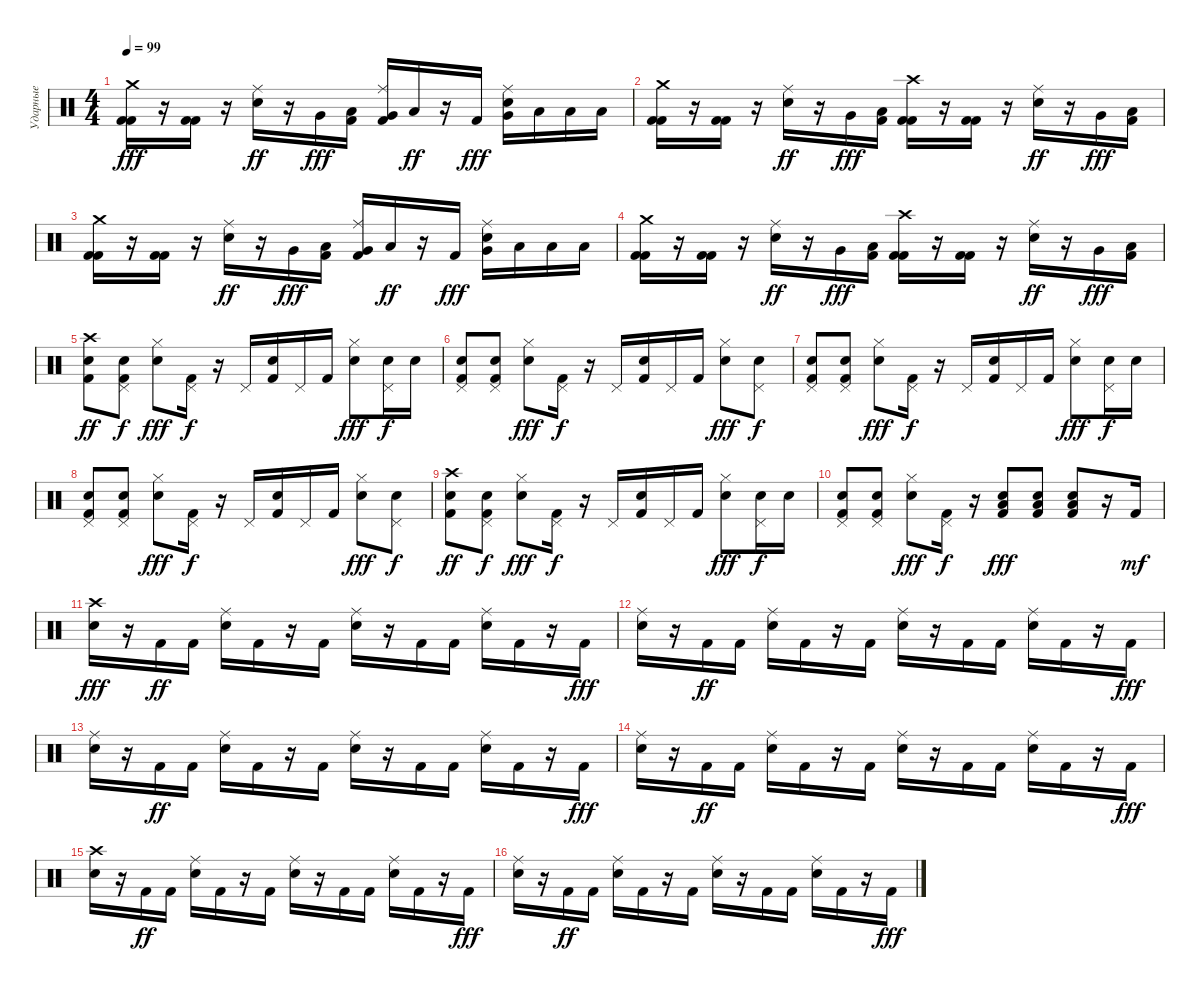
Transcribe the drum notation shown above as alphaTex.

\track ("Ударные" "Ударные") {instrument percussion}
\staff {score}
\articulation defaults
\ts (4 4)
\tempo 99
\clef neutral
\ks c
("Crash medium (hit)" "Kick (hit) 2" "Kick (hit) 2").16{dy fff} r.16 ("Kick (hit) 2" "Kick (hit) 2").16 r.16 ("Ride (middle)" "Snare (hit) 2").16{dy ff} r.16 "Very Low Tom (hit)".16{dy fff} ("Low Floor Tom (hit)" "Kick (hit) 2").16 ("Ride (middle)" "Very Low Tom (hit)" "Kick (hit) 2").16 "Low Floor Tom (hit)".16{dy ff} r.16 "Kick (hit) 2".16{dy fff} ("Ride (middle)" "Very Low Tom (hit)" "Snare (hit) 2").16 "Low Tom (hit)".16 "Low Tom (hit)".16 "Low Tom (hit)".16 |
("Crash medium (hit)" "Kick (hit) 2" "Kick (hit) 2").16 r.16 ("Kick (hit) 2" "Kick (hit) 2").16 r.16 ("Ride (middle)" "Snare (hit) 2").16{dy ff} r.16 "Very Low Tom (hit)".16{dy fff} ("Low Floor Tom (hit)" "Kick (hit) 2").16 ("Crash high (hit)" "Kick (hit) 2" "Kick (hit) 2").16 r.16 ("Kick (hit) 2" "Kick (hit) 2").16 r.16 ("Ride (middle)" "Snare (hit) 2").16{dy ff} r.16 "Very Low Tom (hit)".16{dy fff} ("Low Floor Tom (hit)" "Kick (hit) 2").16 |
("Crash medium (hit)" "Kick (hit) 2" "Kick (hit) 2").16 r.16 ("Kick (hit) 2" "Kick (hit) 2").16 r.16 ("Ride (middle)" "Snare (hit) 2").16{dy ff} r.16 "Very Low Tom (hit)".16{dy fff} ("Low Floor Tom (hit)" "Kick (hit) 2").16 ("Ride (middle)" "Very Low Tom (hit)" "Kick (hit) 2").16 "Low Floor Tom (hit)".16{dy ff} r.16 "Kick (hit) 2".16{dy fff} ("Ride (middle)" "Very Low Tom (hit)" "Snare (hit) 2").16 "Low Tom (hit)".16 "Low Tom (hit)".16 "Low Tom (hit)".16 |
("Crash medium (hit)" "Kick (hit) 2" "Kick (hit) 2").16 r.16 ("Kick (hit) 2" "Kick (hit) 2").16 r.16 ("Ride (middle)" "Snare (hit) 2").16{dy ff} r.16 "Very Low Tom (hit)".16{dy fff} ("Low Floor Tom (hit)" "Kick (hit) 2").16 ("Crash high (hit)" "Kick (hit) 2" "Kick (hit) 2").16 r.16 ("Kick (hit) 2" "Kick (hit) 2").16 r.16 ("Ride (middle)" "Snare (hit) 2").16{dy ff} r.16 "Very Low Tom (hit)".16{dy fff} ("Low Floor Tom (hit)" "Kick (hit) 2").16 |
("Crash high (hit)" "Snare (hit) 2" "Kick (hit) 2").8{dy ff} ("Pedal Hi-Hat (hit)" "Snare (hit) 2" "Kick (hit) 2").8{dy f} ("Hi-Hat (closed)" "Snare (hit) 2").8{dy fff} ("Pedal Hi-Hat (hit)" "Kick (hit) 2").16{dy f} r.16 "Pedal Hi-Hat (hit)".16 ("Snare (hit) 2" "Kick (hit) 2").16 "Pedal Hi-Hat (hit)".16 "Kick (hit) 2".16 ("Hi-Hat (closed)" "Snare (hit) 2").8{dy fff} ("Pedal Hi-Hat (hit)" "Snare (hit) 2").16{dy f} "Snare (hit) 2".16 |
("Pedal Hi-Hat (hit)" "Snare (hit) 2" "Kick (hit) 2").8 ("Pedal Hi-Hat (hit)" "Snare (hit) 2" "Kick (hit) 2").8 ("Hi-Hat (closed)" "Snare (hit) 2").8{dy fff} ("Pedal Hi-Hat (hit)" "Kick (hit) 2").16{dy f} r.16 "Pedal Hi-Hat (hit)".16 ("Snare (hit) 2" "Kick (hit) 2").16 "Pedal Hi-Hat (hit)".16 "Kick (hit) 2".16 ("Hi-Hat (closed)" "Snare (hit) 2").8{dy fff} ("Pedal Hi-Hat (hit)" "Snare (hit) 2").8{dy f} |
("Pedal Hi-Hat (hit)" "Snare (hit) 2" "Kick (hit) 2").8 ("Pedal Hi-Hat (hit)" "Snare (hit) 2" "Kick (hit) 2").8 ("Hi-Hat (closed)" "Snare (hit) 2").8{dy fff} ("Pedal Hi-Hat (hit)" "Kick (hit) 2").16{dy f} r.16 "Pedal Hi-Hat (hit)".16 ("Snare (hit) 2" "Kick (hit) 2").16 "Pedal Hi-Hat (hit)".16 "Kick (hit) 2".16 ("Hi-Hat (closed)" "Snare (hit) 2").8{dy fff} ("Pedal Hi-Hat (hit)" "Snare (hit) 2").16{dy f} "Snare (hit) 2".16 |
("Pedal Hi-Hat (hit)" "Snare (hit) 2" "Kick (hit) 2").8 ("Pedal Hi-Hat (hit)" "Snare (hit) 2" "Kick (hit) 2").8 ("Hi-Hat (closed)" "Snare (hit) 2").8{dy fff} ("Pedal Hi-Hat (hit)" "Kick (hit) 2").16{dy f} r.16 "Pedal Hi-Hat (hit)".16 ("Snare (hit) 2" "Kick (hit) 2").16 "Pedal Hi-Hat (hit)".16 "Kick (hit) 2".16 ("Hi-Hat (closed)" "Snare (hit) 2").8{dy fff} ("Pedal Hi-Hat (hit)" "Snare (hit) 2").8{dy f} |
("Crash high (hit)" "Snare (hit) 2" "Kick (hit) 2").8{dy ff} ("Pedal Hi-Hat (hit)" "Snare (hit) 2" "Kick (hit) 2").8{dy f} ("Hi-Hat (closed)" "Snare (hit) 2").8{dy fff} ("Pedal Hi-Hat (hit)" "Kick (hit) 2").16{dy f} r.16 "Pedal Hi-Hat (hit)".16 ("Snare (hit) 2" "Kick (hit) 2").16 "Pedal Hi-Hat (hit)".16 "Kick (hit) 2".16 ("Hi-Hat (closed)" "Snare (hit) 2").8{dy fff} ("Pedal Hi-Hat (hit)" "Snare (hit) 2").16{dy f} "Snare (hit) 2".16 |
("Pedal Hi-Hat (hit)" "Snare (hit) 2" "Kick (hit) 2").8 ("Pedal Hi-Hat (hit)" "Snare (hit) 2" "Kick (hit) 2").8 ("Hi-Hat (closed)" "Snare (hit) 2").8{dy fff} ("Pedal Hi-Hat (hit)" "Kick (hit) 2").16{dy f} r.16 ("Snare (hit) 2" "Low Floor Tom (hit)" "Kick (hit) 2").8{dy fff} ("Snare (hit) 2" "Low Floor Tom (hit)" "Kick (hit) 2").8 ("Snare (hit) 2" "Low Floor Tom (hit)" "Kick (hit) 2").8 r.16 "Kick (hit) 2".16{dy mf} |
("Crash high (hit)" "Snare (hit) 2").16{dy fff} r.16 "Kick (hit) 2".16{dy ff} "Kick (hit) 2".16 ("Ride (middle)" "Snare (hit) 2").16 "Kick (hit) 2".16 r.16 "Kick (hit) 2".16 ("Ride (middle)" "Snare (hit) 2").16 r.16 "Kick (hit) 2".16 "Kick (hit) 2".16 ("Ride (middle)" "Snare (hit) 2").16 "Kick (hit) 2".16 r.16 "Kick (hit) 2".16{dy fff} |
("Ride (middle)" "Snare (hit) 2").16 r.16 "Kick (hit) 2".16{dy ff} "Kick (hit) 2".16 ("Ride (middle)" "Snare (hit) 2").16 "Kick (hit) 2".16 r.16 "Kick (hit) 2".16 ("Ride (middle)" "Snare (hit) 2").16 r.16 "Kick (hit) 2".16 "Kick (hit) 2".16 ("Ride (middle)" "Snare (hit) 2").16 "Kick (hit) 2".16 r.16 "Kick (hit) 2".16{dy fff} |
("Ride (middle)" "Snare (hit) 2").16 r.16 "Kick (hit) 2".16{dy ff} "Kick (hit) 2".16 ("Ride (middle)" "Snare (hit) 2").16 "Kick (hit) 2".16 r.16 "Kick (hit) 2".16 ("Ride (middle)" "Snare (hit) 2").16 r.16 "Kick (hit) 2".16 "Kick (hit) 2".16 ("Ride (middle)" "Snare (hit) 2").16 "Kick (hit) 2".16 r.16 "Kick (hit) 2".16{dy fff} |
("Ride (middle)" "Snare (hit) 2").16 r.16 "Kick (hit) 2".16{dy ff} "Kick (hit) 2".16 ("Ride (middle)" "Snare (hit) 2").16 "Kick (hit) 2".16 r.16 "Kick (hit) 2".16 ("Ride (middle)" "Snare (hit) 2").16 r.16 "Kick (hit) 2".16 "Kick (hit) 2".16 ("Ride (middle)" "Snare (hit) 2").16 "Kick (hit) 2".16 r.16 "Kick (hit) 2".16{dy fff} |
("Crash high (hit)" "Snare (hit) 2").16 r.16 "Kick (hit) 2".16{dy ff} "Kick (hit) 2".16 ("Ride (middle)" "Snare (hit) 2").16 "Kick (hit) 2".16 r.16 "Kick (hit) 2".16 ("Ride (middle)" "Snare (hit) 2").16 r.16 "Kick (hit) 2".16 "Kick (hit) 2".16 ("Ride (middle)" "Snare (hit) 2").16 "Kick (hit) 2".16 r.16 "Kick (hit) 2".16{dy fff} |
("Ride (middle)" "Snare (hit) 2").16 r.16 "Kick (hit) 2".16{dy ff} "Kick (hit) 2".16 ("Ride (middle)" "Snare (hit) 2").16 "Kick (hit) 2".16 r.16 "Kick (hit) 2".16 ("Ride (middle)" "Snare (hit) 2").16 r.16 "Kick (hit) 2".16 "Kick (hit) 2".16 ("Ride (middle)" "Snare (hit) 2").16 "Kick (hit) 2".16 r.16 "Kick (hit) 2".16{dy fff}
